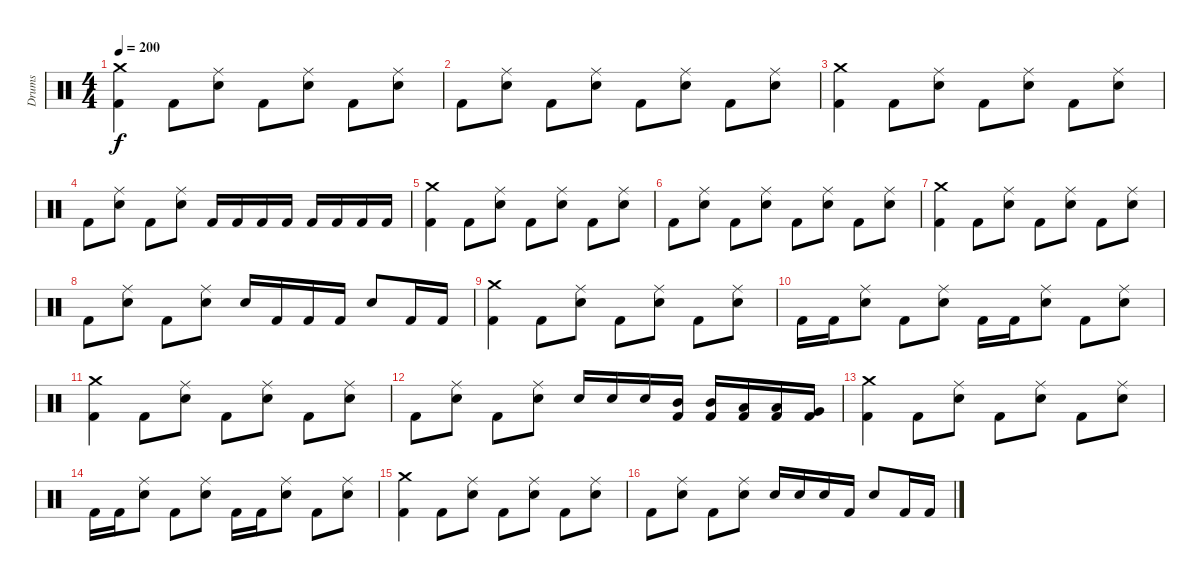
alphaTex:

\track ("Drums" "Drums") {instrument percussion}
\staff {score}
\articulation defaults
\ts (4 4)
\section ("" "")
\tempo 200
\clef neutral
\ks c
("Crash medium (hit)" "Kick (hit) 2").4{dy f} "Kick (hit) 2".8 ("Ride (middle)" "Electric Snare (hit)").8 "Kick (hit) 2".8 ("Ride (middle)" "Electric Snare (hit)").8 "Kick (hit) 2".8 ("Ride (middle)" "Electric Snare (hit)").8 |
"Kick (hit) 2".8 ("Ride (middle)" "Electric Snare (hit)").8 "Kick (hit) 2".8 ("Ride (middle)" "Electric Snare (hit)").8 "Kick (hit) 2".8 ("Ride (middle)" "Electric Snare (hit)").8 "Kick (hit) 2".8 ("Ride (middle)" "Electric Snare (hit)").8 |
("Crash medium (hit)" "Kick (hit) 2").4 "Kick (hit) 2".8 ("Ride (middle)" "Electric Snare (hit)").8 "Kick (hit) 2".8 ("Ride (middle)" "Electric Snare (hit)").8 "Kick (hit) 2".8 ("Ride (middle)" "Electric Snare (hit)").8 |
"Kick (hit) 2".8 ("Ride (middle)" "Electric Snare (hit)").8 "Kick (hit) 2".8 ("Ride (middle)" "Electric Snare (hit)").8 "Kick (hit) 2".16 "Kick (hit) 2".16 "Kick (hit) 2".16 "Kick (hit) 2".16 "Kick (hit) 2".16 "Kick (hit) 2".16 "Kick (hit) 2".16 "Kick (hit) 2".16 |
\section ("" "")
("Crash medium (hit)" "Kick (hit) 2").4 "Kick (hit) 2".8 ("Ride (middle)" "Electric Snare (hit)").8 "Kick (hit) 2".8 ("Ride (middle)" "Electric Snare (hit)").8 "Kick (hit) 2".8 ("Ride (middle)" "Electric Snare (hit)").8 |
"Kick (hit) 2".8 ("Ride (middle)" "Electric Snare (hit)").8 "Kick (hit) 2".8 ("Ride (middle)" "Electric Snare (hit)").8 "Kick (hit) 2".8 ("Ride (middle)" "Electric Snare (hit)").8 "Kick (hit) 2".8 ("Ride (middle)" "Electric Snare (hit)").8 |
("Crash medium (hit)" "Kick (hit) 2").4 "Kick (hit) 2".8 ("Ride (middle)" "Electric Snare (hit)").8 "Kick (hit) 2".8 ("Ride (middle)" "Electric Snare (hit)").8 "Kick (hit) 2".8 ("Ride (middle)" "Electric Snare (hit)").8 |
"Kick (hit) 2".8 ("Ride (middle)" "Electric Snare (hit)").8 "Kick (hit) 2".8 ("Ride (middle)" "Electric Snare (hit)").8 "Electric Snare (hit)".16 "Kick (hit) 2".16 "Kick (hit) 2".16 "Kick (hit) 2".16 "Electric Snare (hit)".8 "Kick (hit) 2".16 "Kick (hit) 2".16 |
\section ("" "")
("Crash medium (hit)" "Kick (hit) 2").4 "Kick (hit) 2".8 ("Ride (middle)" "Electric Snare (hit)").8 "Kick (hit) 2".8 ("Ride (middle)" "Electric Snare (hit)").8 "Kick (hit) 2".8 ("Ride (middle)" "Electric Snare (hit)").8 |
"Kick (hit) 2".16 "Kick (hit) 2".16 ("Ride (middle)" "Electric Snare (hit)").8 "Kick (hit) 2".8 ("Ride (middle)" "Electric Snare (hit)").8 "Kick (hit) 2".16 "Kick (hit) 2".16 ("Ride (middle)" "Electric Snare (hit)").8 "Kick (hit) 2".8 ("Ride (middle)" "Electric Snare (hit)").8 |
("Crash medium (hit)" "Kick (hit) 2").4 "Kick (hit) 2".8 ("Ride (middle)" "Electric Snare (hit)").8 "Kick (hit) 2".8 ("Ride (middle)" "Electric Snare (hit)").8 "Kick (hit) 2".8 ("Ride (middle)" "Electric Snare (hit)").8 |
"Kick (hit) 2".8 ("Ride (middle)" "Electric Snare (hit)").8 "Kick (hit) 2".8 ("Ride (middle)" "Electric Snare (hit)").8 "Electric Snare (hit)".16 "Electric Snare (hit)".16 "Electric Snare (hit)".16 ("Mid Tom (hit)" "Kick (hit) 2").16 ("Mid Tom (hit)" "Kick (hit) 2").16 ("Low Tom (hit)" "Kick (hit) 2").16 ("Low Tom (hit)" "Kick (hit) 2").16 ("Very Low Tom (hit)" "Kick (hit) 2").16 |
("Crash medium (hit)" "Kick (hit) 2").4 "Kick (hit) 2".8 ("Ride (middle)" "Electric Snare (hit)").8 "Kick (hit) 2".8 ("Ride (middle)" "Electric Snare (hit)").8 "Kick (hit) 2".8 ("Ride (middle)" "Electric Snare (hit)").8 |
"Kick (hit) 2".16 "Kick (hit) 2".16 ("Ride (middle)" "Electric Snare (hit)").8 "Kick (hit) 2".8 ("Ride (middle)" "Electric Snare (hit)").8 "Kick (hit) 2".16 "Kick (hit) 2".16 ("Ride (middle)" "Electric Snare (hit)").8 "Kick (hit) 2".8 ("Ride (middle)" "Electric Snare (hit)").8 |
("Crash medium (hit)" "Kick (hit) 2").4 "Kick (hit) 2".8 ("Ride (middle)" "Electric Snare (hit)").8 "Kick (hit) 2".8 ("Ride (middle)" "Electric Snare (hit)").8 "Kick (hit) 2".8 ("Ride (middle)" "Electric Snare (hit)").8 |
"Kick (hit) 2".8 ("Ride (middle)" "Electric Snare (hit)").8 "Kick (hit) 2".8 ("Ride (middle)" "Electric Snare (hit)").8 "Electric Snare (hit)".16 "Electric Snare (hit)".16 "Electric Snare (hit)".16 "Kick (hit) 2".16 "Electric Snare (hit)".8 "Kick (hit) 2".16 "Kick (hit) 2".16
